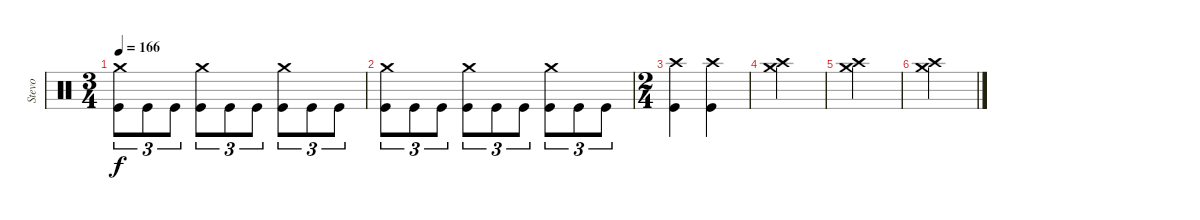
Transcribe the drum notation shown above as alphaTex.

\track ("Stevo" "Stevo") {instrument percussion}
\staff {score}
\articulation defaults
\ts (3 4)
\tempo 166
\clef neutral
\ks c
("Crash medium (hit)" "Kick (hit)").8{tu (3 2) dy f} "Kick (hit)".8{tu (3 2)} "Kick (hit)".8{tu (3 2)} ("Crash medium (hit)" "Kick (hit)").8{tu (3 2)} "Kick (hit)".8{tu (3 2)} "Kick (hit)".8{tu (3 2)} ("Crash medium (hit)" "Kick (hit)").8{tu (3 2)} "Kick (hit)".8{tu (3 2)} "Kick (hit)".8{tu (3 2)} |
("Crash medium (hit)" "Kick (hit)").8{tu (3 2)} "Kick (hit)".8{tu (3 2)} "Kick (hit)".8{tu (3 2)} ("Crash medium (hit)" "Kick (hit)").8{tu (3 2)} "Kick (hit)".8{tu (3 2)} "Kick (hit)".8{tu (3 2)} ("Crash medium (hit)" "Kick (hit)").8{tu (3 2)} "Kick (hit)".8{tu (3 2)} "Kick (hit)".8{tu (3 2)} |
\ts (2 4)
("Crash high (hit)" "Kick (hit)").4 ("Crash high (hit)" "Kick (hit)").4 |
("Crash high (hit)" "Crash medium (hit)").2 |
("Crash high (hit)" "Crash medium (hit)").2 |
("Crash high (hit)" "Crash medium (hit)").2
